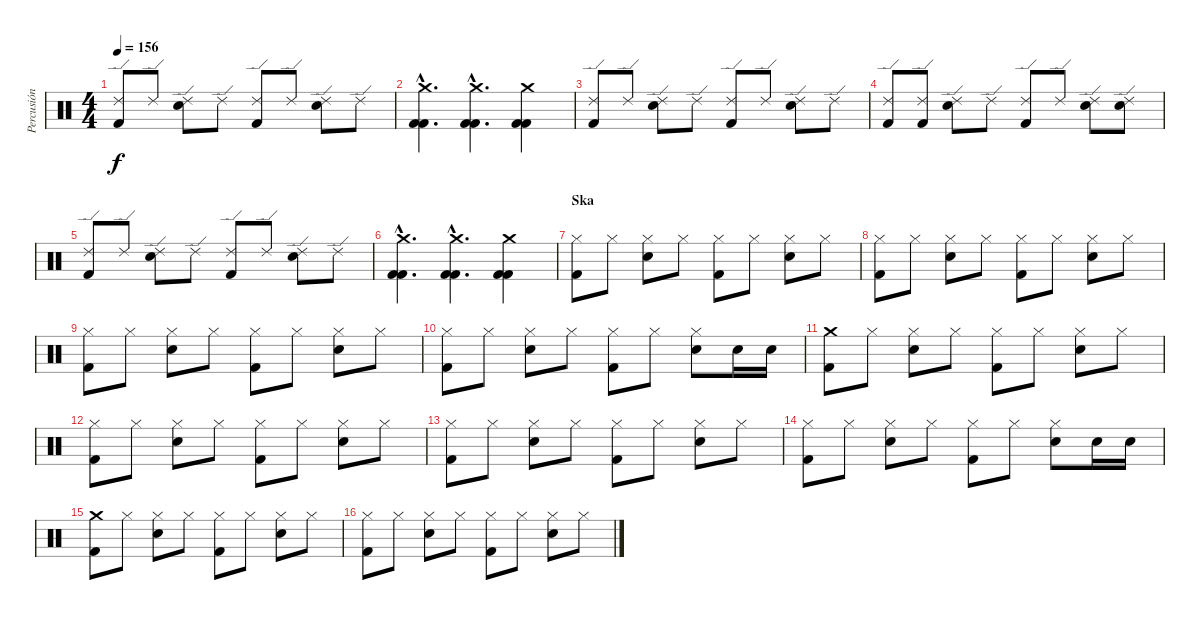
\track ("Percusión" "Percusión") {instrument percussion}
\staff {score}
\articulation defaults
\ts (4 4)
\tempo 156
\clef neutral
\ks c
("Ride (edge) 2" "Kick (hit) 2").8{dy f} "Ride (edge) 2".8 ("Ride (edge) 2" "Electric Snare (hit)").8 "Ride (edge) 2".8 ("Ride (edge) 2" "Kick (hit) 2").8 "Ride (edge) 2".8 ("Ride (edge) 2" "Electric Snare (hit)").8 "Ride (edge) 2".8 |
("Crash medium (hit)"{hac} "Kick (hit) 2"{hac} "Kick (hit) 2"{hac}).4{d} ("Crash medium (hit)"{hac} "Kick (hit) 2"{hac} "Kick (hit) 2"{hac}).4{d} ("Crash medium (hit)" "Kick (hit) 2" "Kick (hit) 2").4 |
("Ride (edge) 2" "Kick (hit) 2").8 "Ride (edge) 2".8 ("Ride (edge) 2" "Electric Snare (hit)").8 "Ride (edge) 2".8 ("Ride (edge) 2" "Kick (hit) 2").8 "Ride (edge) 2".8 ("Ride (edge) 2" "Electric Snare (hit)").8 "Ride (edge) 2".8 |
("Ride (edge) 2" "Kick (hit) 2").8 ("Ride (edge) 2" "Kick (hit) 2").8 ("Ride (edge) 2" "Electric Snare (hit)").8 "Ride (edge) 2".8 ("Ride (edge) 2" "Kick (hit) 2").8 "Ride (edge) 2".8 ("Ride (edge) 2" "Electric Snare (hit)").8 ("Ride (edge) 2" "Electric Snare (hit)").8 |
("Ride (edge) 2" "Kick (hit) 2").8 "Ride (edge) 2".8 ("Ride (edge) 2" "Electric Snare (hit)").8 "Ride (edge) 2".8 ("Ride (edge) 2" "Kick (hit) 2").8 "Ride (edge) 2".8 ("Ride (edge) 2" "Electric Snare (hit)").8 "Ride (edge) 2".8 |
("Crash medium (hit)"{hac} "Kick (hit) 2"{hac} "Kick (hit) 2"{hac}).4{d} ("Crash medium (hit)"{hac} "Kick (hit) 2"{hac} "Kick (hit) 2"{hac}).4{d} ("Crash medium (hit)" "Kick (hit) 2" "Kick (hit) 2").4 |
\section ("" "Ska")
("Hi-Hat (closed)" "Kick (hit) 2").8 "Hi-Hat (closed)".8 ("Hi-Hat (closed)" "Electric Snare (hit)").8 "Hi-Hat (closed)".8 ("Hi-Hat (closed)" "Kick (hit) 2").8 "Hi-Hat (closed)".8 ("Hi-Hat (closed)" "Electric Snare (hit)").8 "Hi-Hat (closed)".8 |
("Hi-Hat (closed)" "Kick (hit) 2").8 "Hi-Hat (closed)".8 ("Hi-Hat (closed)" "Electric Snare (hit)").8 "Hi-Hat (closed)".8 ("Hi-Hat (closed)" "Kick (hit) 2").8 "Hi-Hat (closed)".8 ("Hi-Hat (closed)" "Electric Snare (hit)").8 "Hi-Hat (closed)".8 |
("Hi-Hat (closed)" "Kick (hit) 2").8 "Hi-Hat (closed)".8 ("Hi-Hat (closed)" "Electric Snare (hit)").8 "Hi-Hat (closed)".8 ("Hi-Hat (closed)" "Kick (hit) 2").8 "Hi-Hat (closed)".8 ("Hi-Hat (closed)" "Electric Snare (hit)").8 "Hi-Hat (closed)".8 |
("Hi-Hat (closed)" "Kick (hit) 2").8 "Hi-Hat (closed)".8 ("Hi-Hat (closed)" "Electric Snare (hit)").8 "Hi-Hat (closed)".8 ("Hi-Hat (closed)" "Kick (hit) 2").8 "Hi-Hat (closed)".8 ("Hi-Hat (closed)" "Electric Snare (hit)").8 "Electric Snare (hit)".16 "Electric Snare (hit)".16 |
("Crash medium (hit)" "Kick (hit) 2").8 "Hi-Hat (closed)".8 ("Hi-Hat (closed)" "Electric Snare (hit)").8 "Hi-Hat (closed)".8 ("Hi-Hat (closed)" "Kick (hit) 2").8 "Hi-Hat (closed)".8 ("Hi-Hat (closed)" "Electric Snare (hit)").8 "Hi-Hat (closed)".8 |
("Hi-Hat (closed)" "Kick (hit) 2").8 "Hi-Hat (closed)".8 ("Hi-Hat (closed)" "Electric Snare (hit)").8 "Hi-Hat (closed)".8 ("Hi-Hat (closed)" "Kick (hit) 2").8 "Hi-Hat (closed)".8 ("Hi-Hat (closed)" "Electric Snare (hit)").8 "Hi-Hat (closed)".8 |
("Hi-Hat (closed)" "Kick (hit) 2").8 "Hi-Hat (closed)".8 ("Hi-Hat (closed)" "Electric Snare (hit)").8 "Hi-Hat (closed)".8 ("Hi-Hat (closed)" "Kick (hit) 2").8 "Hi-Hat (closed)".8 ("Hi-Hat (closed)" "Electric Snare (hit)").8 "Hi-Hat (closed)".8 |
("Hi-Hat (closed)" "Kick (hit) 2").8 "Hi-Hat (closed)".8 ("Hi-Hat (closed)" "Electric Snare (hit)").8 "Hi-Hat (closed)".8 ("Hi-Hat (closed)" "Kick (hit) 2").8 "Hi-Hat (closed)".8 ("Hi-Hat (closed)" "Electric Snare (hit)").8 "Electric Snare (hit)".16 "Electric Snare (hit)".16 |
("Crash medium (hit)" "Kick (hit) 2").8 "Hi-Hat (closed)".8 ("Hi-Hat (closed)" "Electric Snare (hit)").8 "Hi-Hat (closed)".8 ("Hi-Hat (closed)" "Kick (hit) 2").8 "Hi-Hat (closed)".8 ("Hi-Hat (closed)" "Electric Snare (hit)").8 "Hi-Hat (closed)".8 |
("Hi-Hat (closed)" "Kick (hit) 2").8 "Hi-Hat (closed)".8 ("Hi-Hat (closed)" "Electric Snare (hit)").8 "Hi-Hat (closed)".8 ("Hi-Hat (closed)" "Kick (hit) 2").8 "Hi-Hat (closed)".8 ("Hi-Hat (closed)" "Electric Snare (hit)").8 "Hi-Hat (closed)".8
